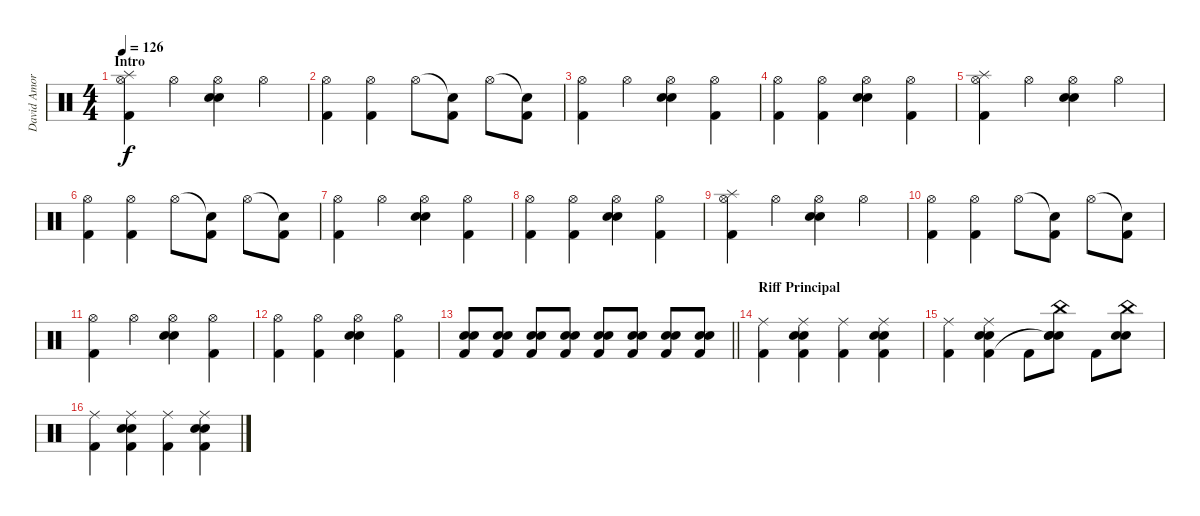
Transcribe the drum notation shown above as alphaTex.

\track ("David Amore" "David Amor") {instrument percussion}
\staff {score}
\articulation defaults
\ts (4 4)
\section ("" "Intro")
\tempo 126
\clef neutral
\ks c
("Splash (hit)" "Hi-Hat (open)" "Kick (hit) 2").4{dy f} "Hi-Hat (open)".4 ("Hi-Hat (open)" "Electric Snare (hit)" "Snare (hit) 2").4 "Hi-Hat (open)".4 |
("Hi-Hat (open)" "Kick (hit) 2").4 ("Hi-Hat (open)" "Kick (hit) 2").4 "Hi-Hat (open)".8 ("Snare (hit)"{t} "Kick (hit) 2").8 "Hi-Hat (open)".8 ("Snare (hit)"{t} "Kick (hit) 2").8 |
("Hi-Hat (open)" "Kick (hit) 2").4 "Hi-Hat (open)".4 ("Hi-Hat (open)" "Electric Snare (hit)" "Snare (hit) 2").4 ("Hi-Hat (open)" "Kick (hit) 2").4 |
("Hi-Hat (open)" "Kick (hit) 2").4 ("Hi-Hat (open)" "Kick (hit) 2").4 ("Hi-Hat (open)" "Snare (hit) 2" "Electric Snare (hit)").4 ("Hi-Hat (open)" "Kick (hit) 2").4 |
("Splash (hit)" "Hi-Hat (open)" "Kick (hit) 2").4 "Hi-Hat (open)".4 ("Hi-Hat (open)" "Electric Snare (hit)" "Snare (hit) 2").4 "Hi-Hat (open)".4 |
("Hi-Hat (open)" "Kick (hit) 2").4 ("Hi-Hat (open)" "Kick (hit) 2").4 "Hi-Hat (open)".8 ("Snare (hit)"{t} "Kick (hit) 2").8 "Hi-Hat (open)".8 ("Snare (hit)"{t} "Kick (hit) 2").8 |
("Hi-Hat (open)" "Kick (hit) 2").4 "Hi-Hat (open)".4 ("Hi-Hat (open)" "Electric Snare (hit)" "Snare (hit) 2").4 ("Hi-Hat (open)" "Kick (hit) 2").4 |
("Hi-Hat (open)" "Kick (hit) 2").4 ("Hi-Hat (open)" "Kick (hit) 2").4 ("Hi-Hat (open)" "Snare (hit) 2" "Electric Snare (hit)").4 ("Hi-Hat (open)" "Kick (hit) 2").4 |
("Splash (hit)" "Hi-Hat (open)" "Kick (hit) 2").4 "Hi-Hat (open)".4 ("Hi-Hat (open)" "Electric Snare (hit)" "Snare (hit) 2").4 "Hi-Hat (open)".4 |
("Hi-Hat (open)" "Kick (hit) 2").4 ("Hi-Hat (open)" "Kick (hit) 2").4 "Hi-Hat (open)".8 ("Snare (hit)"{t} "Kick (hit) 2").8 "Hi-Hat (open)".8 ("Snare (hit)"{t} "Kick (hit) 2").8 |
("Hi-Hat (open)" "Kick (hit) 2").4 "Hi-Hat (open)".4 ("Hi-Hat (open)" "Electric Snare (hit)" "Snare (hit) 2").4 ("Hi-Hat (open)" "Kick (hit) 2").4 |
("Hi-Hat (open)" "Kick (hit) 2").4 ("Hi-Hat (open)" "Kick (hit) 2").4 ("Hi-Hat (open)" "Snare (hit) 2" "Electric Snare (hit)").4 ("Hi-Hat (open)" "Kick (hit) 2").4 |
\barLineRight lightlight
("Electric Snare (hit)" "Snare (hit) 2" "Kick (hit) 2").8 ("Electric Snare (hit)" "Snare (hit) 2" "Kick (hit) 2").8 ("Electric Snare (hit)" "Snare (hit) 2" "Kick (hit) 2").8 ("Electric Snare (hit)" "Snare (hit) 2" "Kick (hit) 2").8 ("Electric Snare (hit)" "Snare (hit) 2" "Kick (hit) 2").8 ("Electric Snare (hit)" "Snare (hit) 2" "Kick (hit) 2").8 ("Electric Snare (hit)" "Snare (hit) 2" "Kick (hit) 2").8 ("Electric Snare (hit)" "Snare (hit) 2" "Kick (hit) 2").8 |
\section ("" "Riff Principal")
("Ride (middle)" "Kick (hit) 2").4 ("Ride (middle)" "Electric Snare (hit)" "Snare (hit) 2" "Kick (hit) 2").4 ("Ride (middle)" "Kick (hit) 2").4 ("Ride (middle)" "Snare (hit) 2" "Electric Snare (hit)" "Kick (hit) 2").4 |
("Ride (middle)" "Kick (hit) 2").4 ("Ride (middle)" "Snare (hit) 2" "Electric Snare (hit)" "Kick (hit) 2").4 "Kick (hit) 2".8 ("China (hit)" "Snare (hit) 2" "Electric Snare (hit)" "Snare (hit)"{t}).8 "Kick (hit) 2".8 ("China (hit)" "Snare (hit) 2" "Electric Snare (hit)").8 |
("Ride (middle)" "Kick (hit) 2").4 ("Ride (middle)" "Electric Snare (hit)" "Snare (hit) 2" "Kick (hit) 2").4 ("Ride (middle)" "Kick (hit) 2").4 ("Ride (middle)" "Snare (hit) 2" "Electric Snare (hit)" "Kick (hit) 2").4
